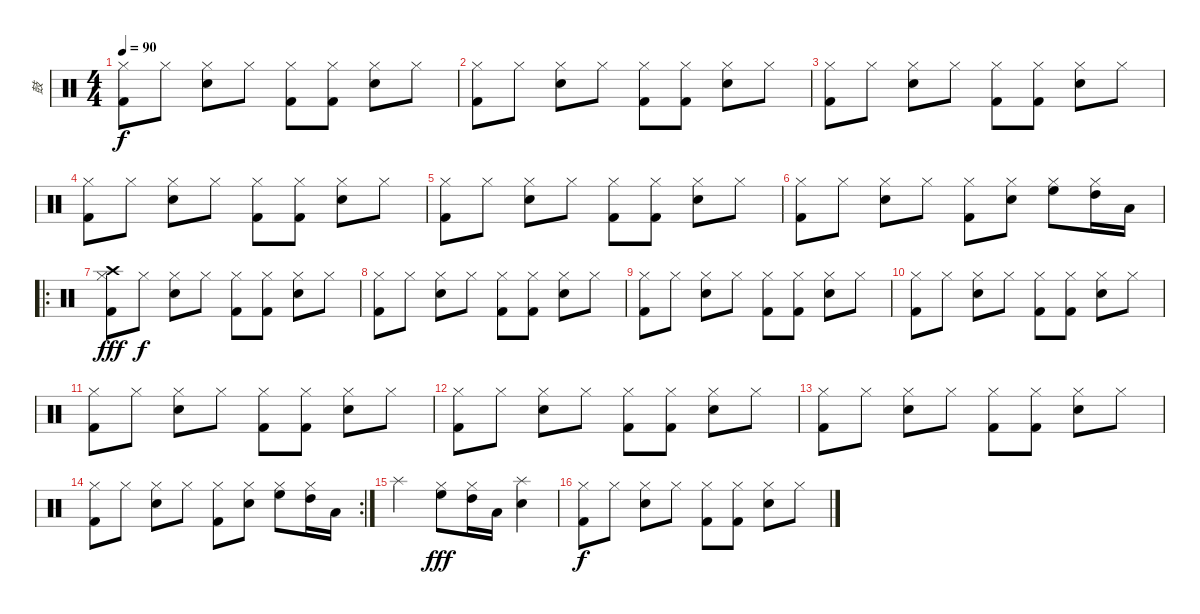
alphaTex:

\track ("鼓" "鼓") {instrument percussion}
\staff {score}
\articulation defaults
\ts (4 4)
\tempo 90
\clef neutral
\ks c
("Hi-Hat (closed)" "Kick (hit) 2").8{dy f} "Hi-Hat (closed)".8 ("Electric Snare (hit)" "Hi-Hat (closed)").8 "Hi-Hat (closed)".8 ("Kick (hit) 2" "Hi-Hat (closed)").8 ("Kick (hit) 2" "Hi-Hat (closed)").8 ("Electric Snare (hit)" "Hi-Hat (closed)").8 "Hi-Hat (closed)".8 |
("Hi-Hat (closed)" "Kick (hit) 2").8 "Hi-Hat (closed)".8 ("Electric Snare (hit)" "Hi-Hat (closed)").8 "Hi-Hat (closed)".8 ("Kick (hit) 2" "Hi-Hat (closed)").8 ("Kick (hit) 2" "Hi-Hat (closed)").8 ("Electric Snare (hit)" "Hi-Hat (closed)").8 "Hi-Hat (closed)".8 |
("Hi-Hat (closed)" "Kick (hit) 2").8 "Hi-Hat (closed)".8 ("Electric Snare (hit)" "Hi-Hat (closed)").8 "Hi-Hat (closed)".8 ("Kick (hit) 2" "Hi-Hat (closed)").8 ("Kick (hit) 2" "Hi-Hat (closed)").8 ("Electric Snare (hit)" "Hi-Hat (closed)").8 "Hi-Hat (closed)".8 |
("Hi-Hat (closed)" "Kick (hit) 2").8 "Hi-Hat (closed)".8 ("Electric Snare (hit)" "Hi-Hat (closed)").8 "Hi-Hat (closed)".8 ("Kick (hit) 2" "Hi-Hat (closed)").8 ("Kick (hit) 2" "Hi-Hat (closed)").8 ("Electric Snare (hit)" "Hi-Hat (closed)").8 "Hi-Hat (closed)".8 |
("Hi-Hat (closed)" "Kick (hit) 2").8 "Hi-Hat (closed)".8 ("Electric Snare (hit)" "Hi-Hat (closed)").8 "Hi-Hat (closed)".8 ("Kick (hit) 2" "Hi-Hat (closed)").8 ("Kick (hit) 2" "Hi-Hat (closed)").8 ("Electric Snare (hit)" "Hi-Hat (closed)").8 "Hi-Hat (closed)".8 |
("Hi-Hat (closed)" "Kick (hit) 2").8 "Hi-Hat (closed)".8 ("Electric Snare (hit)" "Hi-Hat (closed)").8 "Hi-Hat (closed)".8 ("Kick (hit) 2" "Hi-Hat (closed)").8 ("Hi-Hat (closed)" "Electric Snare (hit)").8 ("High Floor Tom (hit)" "Hi-Hat (closed)").8 ("Hi-Hat (closed)" "High Tom (hit)").16 "Low Tom (hit)".16 |
\ro
("Hi-Hat (closed)" "Kick (hit) 2" "Crash high (hit)").8{dy fff} "Hi-Hat (closed)".8{dy f} ("Electric Snare (hit)" "Hi-Hat (closed)").8 "Hi-Hat (closed)".8 ("Kick (hit) 2" "Hi-Hat (closed)").8 ("Kick (hit) 2" "Hi-Hat (closed)").8 ("Electric Snare (hit)" "Hi-Hat (closed)").8 "Hi-Hat (closed)".8 |
("Hi-Hat (closed)" "Kick (hit) 2").8 "Hi-Hat (closed)".8 ("Electric Snare (hit)" "Hi-Hat (closed)").8 "Hi-Hat (closed)".8 ("Kick (hit) 2" "Hi-Hat (closed)").8 ("Kick (hit) 2" "Hi-Hat (closed)").8 ("Electric Snare (hit)" "Hi-Hat (closed)").8 "Hi-Hat (closed)".8 |
("Hi-Hat (closed)" "Kick (hit) 2").8 "Hi-Hat (closed)".8 ("Electric Snare (hit)" "Hi-Hat (closed)").8 "Hi-Hat (closed)".8 ("Kick (hit) 2" "Hi-Hat (closed)").8 ("Kick (hit) 2" "Hi-Hat (closed)").8 ("Electric Snare (hit)" "Hi-Hat (closed)").8 "Hi-Hat (closed)".8 |
("Hi-Hat (closed)" "Kick (hit) 2").8 "Hi-Hat (closed)".8 ("Electric Snare (hit)" "Hi-Hat (closed)").8 "Hi-Hat (closed)".8 ("Kick (hit) 2" "Hi-Hat (closed)").8 ("Kick (hit) 2" "Hi-Hat (closed)").8 ("Electric Snare (hit)" "Hi-Hat (closed)").8 "Hi-Hat (closed)".8 |
("Hi-Hat (closed)" "Kick (hit) 2").8 "Hi-Hat (closed)".8 ("Electric Snare (hit)" "Hi-Hat (closed)").8 "Hi-Hat (closed)".8 ("Kick (hit) 2" "Hi-Hat (closed)").8 ("Kick (hit) 2" "Hi-Hat (closed)").8 ("Electric Snare (hit)" "Hi-Hat (closed)").8 "Hi-Hat (closed)".8 |
("Hi-Hat (closed)" "Kick (hit) 2").8 "Hi-Hat (closed)".8 ("Electric Snare (hit)" "Hi-Hat (closed)").8 "Hi-Hat (closed)".8 ("Kick (hit) 2" "Hi-Hat (closed)").8 ("Kick (hit) 2" "Hi-Hat (closed)").8 ("Electric Snare (hit)" "Hi-Hat (closed)").8 "Hi-Hat (closed)".8 |
("Hi-Hat (closed)" "Kick (hit) 2").8 "Hi-Hat (closed)".8 ("Electric Snare (hit)" "Hi-Hat (closed)").8 "Hi-Hat (closed)".8 ("Kick (hit) 2" "Hi-Hat (closed)").8 ("Kick (hit) 2" "Hi-Hat (closed)").8 ("Electric Snare (hit)" "Hi-Hat (closed)").8 "Hi-Hat (closed)".8 |
\rc 2
("Hi-Hat (closed)" "Kick (hit) 2").8 "Hi-Hat (closed)".8 ("Electric Snare (hit)" "Hi-Hat (closed)").8 "Hi-Hat (closed)".8 ("Kick (hit) 2" "Hi-Hat (closed)").8 ("Hi-Hat (closed)" "Electric Snare (hit)").8 ("High Floor Tom (hit)" "Hi-Hat (closed)").8 ("Hi-Hat (closed)" "High Tom (hit)").16 "Low Tom (hit)".16 |
"Splash (hit)".2 ("High Floor Tom (hit)" "Hi-Hat (closed)").8{dy fff} ("High Tom (hit)" "Hi-Hat (closed)").16 "Low Tom (hit)".16 ("Electric Snare (hit)" "Splash (hit)").4 |
("Hi-Hat (closed)" "Kick (hit) 2").8{dy f} "Hi-Hat (closed)".8 ("Electric Snare (hit)" "Hi-Hat (closed)").8 "Hi-Hat (closed)".8 ("Kick (hit) 2" "Hi-Hat (closed)").8 ("Kick (hit) 2" "Hi-Hat (closed)").8 ("Electric Snare (hit)" "Hi-Hat (closed)").8 "Hi-Hat (closed)".8
